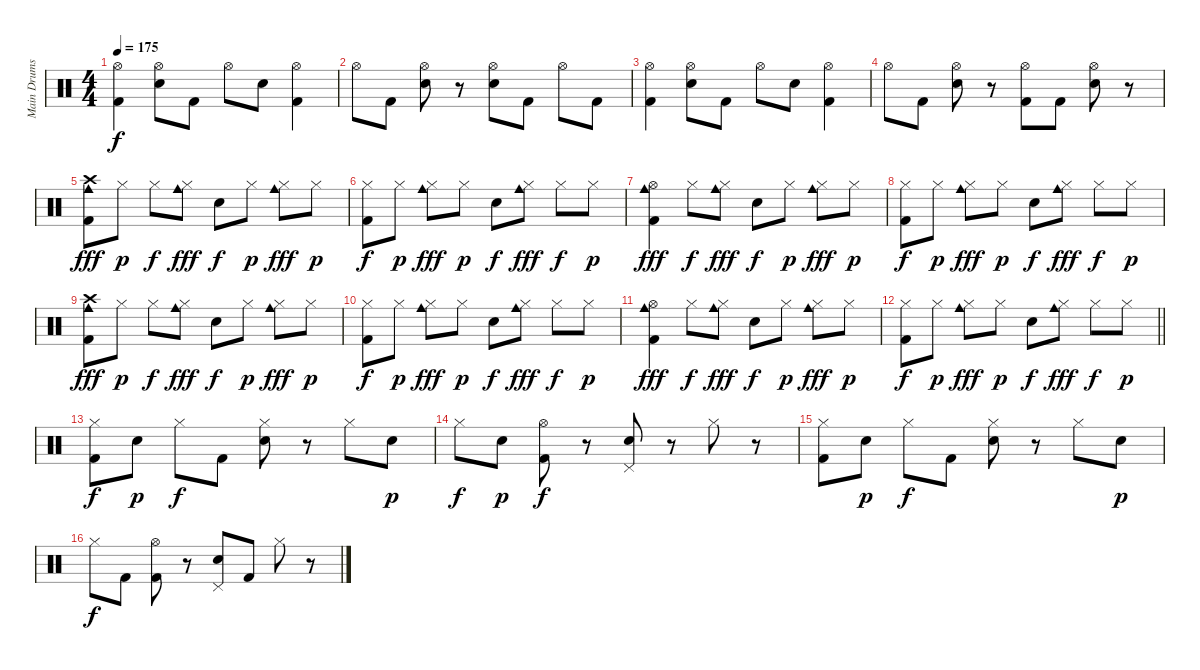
\track ("Main Drums" "Main Drums") {instrument percussion}
\staff {score}
\articulation defaults
\ts (4 4)
\tempo 175
\clef neutral
\ks c
("Hi-Hat (open)" "Kick (hit) 2").4{dy f} ("Hi-Hat (open)" "Electric Snare (hit)").8 "Kick (hit) 2".8 "Hi-Hat (open)".8 "Electric Snare (hit)".8 ("Hi-Hat (open)" "Kick (hit) 2").4 |
"Hi-Hat (open)".8 "Kick (hit) 2".8 ("Hi-Hat (open)" "Electric Snare (hit)").8 r.8 ("Hi-Hat (open)" "Electric Snare (hit)").8 "Kick (hit) 2".8 "Hi-Hat (open)".8 "Kick (hit) 2".8 |
("Hi-Hat (open)" "Kick (hit) 2").4 ("Hi-Hat (open)" "Electric Snare (hit)").8 "Kick (hit) 2".8 "Hi-Hat (open)".8 "Electric Snare (hit)".8 ("Hi-Hat (open)" "Kick (hit) 2").4 |
"Hi-Hat (open)".8 "Kick (hit) 2".8 ("Hi-Hat (open)" "Electric Snare (hit)").8 r.8 ("Hi-Hat (open)" "Kick (hit) 2").8 "Kick (hit) 2".8 ("Hi-Hat (open)" "Electric Snare (hit)").8 r.8 |
("Crash high (hit)" "Cowbell medium (hit)" "Kick (hit) 2").8{dy fff} "Hi-Hat (closed)".8{dy p} "Hi-Hat (closed)".8{dy f} ("Hi-Hat (closed)" "Cowbell medium (hit)").8{dy fff} "Electric Snare (hit)".8{dy f} "Hi-Hat (closed)".8{dy p} ("Hi-Hat (closed)" "Cowbell medium (hit)").8{dy fff} "Hi-Hat (closed)".8{dy p} |
("Hi-Hat (closed)" "Kick (hit) 2").8{dy f} "Hi-Hat (closed)".8{dy p} ("Hi-Hat (closed)" "Cowbell medium (hit)").8{dy fff} "Hi-Hat (closed)".8{dy p} "Electric Snare (hit)".8{dy f} ("Hi-Hat (closed)" "Cowbell medium (hit)").8{dy fff} "Hi-Hat (closed)".8{dy f} "Hi-Hat (closed)".8{dy p} |
("Hi-Hat (open)" "Cowbell medium (hit)" "Kick (hit) 2").4{dy fff} "Hi-Hat (closed)".8{dy f} ("Hi-Hat (closed)" "Cowbell medium (hit)").8{dy fff} "Electric Snare (hit)".8{dy f} "Hi-Hat (closed)".8{dy p} ("Hi-Hat (closed)" "Cowbell medium (hit)").8{dy fff} "Hi-Hat (closed)".8{dy p} |
("Hi-Hat (closed)" "Kick (hit) 2").8{dy f} "Hi-Hat (closed)".8{dy p} ("Hi-Hat (closed)" "Cowbell medium (hit)").8{dy fff} "Hi-Hat (closed)".8{dy p} "Electric Snare (hit)".8{dy f} ("Hi-Hat (closed)" "Cowbell medium (hit)").8{dy fff} "Hi-Hat (closed)".8{dy f} "Hi-Hat (closed)".8{dy p} |
("Crash high (hit)" "Cowbell medium (hit)" "Kick (hit) 2").8{dy fff} "Hi-Hat (closed)".8{dy p} "Hi-Hat (closed)".8{dy f} ("Hi-Hat (closed)" "Cowbell medium (hit)").8{dy fff} "Electric Snare (hit)".8{dy f} "Hi-Hat (closed)".8{dy p} ("Hi-Hat (closed)" "Cowbell medium (hit)").8{dy fff} "Hi-Hat (closed)".8{dy p} |
("Hi-Hat (closed)" "Kick (hit) 2").8{dy f} "Hi-Hat (closed)".8{dy p} ("Hi-Hat (closed)" "Cowbell medium (hit)").8{dy fff} "Hi-Hat (closed)".8{dy p} "Electric Snare (hit)".8{dy f} ("Hi-Hat (closed)" "Cowbell medium (hit)").8{dy fff} "Hi-Hat (closed)".8{dy f} "Hi-Hat (closed)".8{dy p} |
("Hi-Hat (open)" "Cowbell medium (hit)" "Kick (hit) 2").4{dy fff} "Hi-Hat (closed)".8{dy f} ("Hi-Hat (closed)" "Cowbell medium (hit)").8{dy fff} "Electric Snare (hit)".8{dy f} "Hi-Hat (closed)".8{dy p} ("Hi-Hat (closed)" "Cowbell medium (hit)").8{dy fff} "Hi-Hat (closed)".8{dy p} |
\barLineRight lightlight
("Hi-Hat (closed)" "Kick (hit) 2").8{dy f} "Hi-Hat (closed)".8{dy p} ("Hi-Hat (closed)" "Cowbell medium (hit)").8{dy fff} "Hi-Hat (closed)".8{dy p} "Electric Snare (hit)".8{dy f} ("Hi-Hat (closed)" "Cowbell medium (hit)").8{dy fff} "Hi-Hat (closed)".8{dy f} "Hi-Hat (closed)".8{dy p} |
("Hi-Hat (closed)" "Kick (hit) 2").8{dy f} "Electric Snare (hit)".8{dy p} "Hi-Hat (closed)".8{dy f} "Kick (hit) 2".8 ("Hi-Hat (closed)" "Electric Snare (hit)").8 r.8 "Hi-Hat (closed)".8 "Electric Snare (hit)".8{dy p} |
"Hi-Hat (closed)".8{dy f} "Electric Snare (hit)".8{dy p} ("Hi-Hat (open)" "Kick (hit) 2").8{dy f} r.8 ("Pedal Hi-Hat (hit)" "Electric Snare (hit)").8 r.8 "Hi-Hat (closed)".8 r.8 |
("Hi-Hat (closed)" "Kick (hit) 2").8 "Electric Snare (hit)".8{dy p} "Hi-Hat (closed)".8{dy f} "Kick (hit) 2".8 ("Hi-Hat (closed)" "Electric Snare (hit)").8 r.8 "Hi-Hat (closed)".8 "Electric Snare (hit)".8{dy p} |
"Hi-Hat (closed)".8{dy f} "Kick (hit) 2".8 ("Hi-Hat (open)" "Kick (hit) 2").8 r.8 ("Pedal Hi-Hat (hit)" "Electric Snare (hit)").8 "Kick (hit) 2".8 "Hi-Hat (closed)".8 r.8
